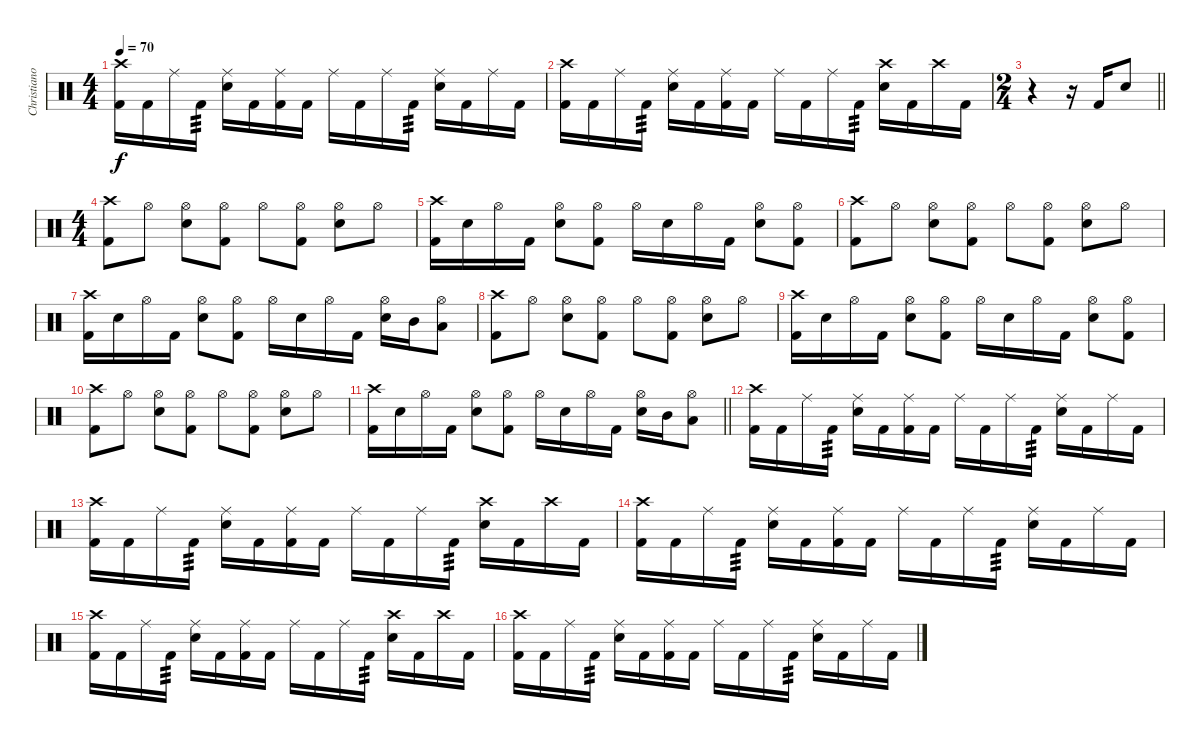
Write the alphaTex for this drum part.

\track ("Christiano Mozzati" "Christiano") {instrument percussion}
\staff {score}
\articulation defaults
\ts (4 4)
\tempo 70
\clef neutral
\ks c
("Crash high (hit)" "Kick (hit) 2").16{dy f} "Kick (hit) 2".16 "Ride (middle)".16 "Kick (hit) 2".16{tp 3} ("Ride (middle)" "Snare (hit) 2").16 "Kick (hit) 2".16 ("Ride (middle)" "Kick (hit) 2").16 "Kick (hit) 2".16 "Ride (middle)".16 "Kick (hit) 2".16 "Ride (middle)".16 "Kick (hit) 2".16{tp 3} ("Ride (middle)" "Snare (hit) 2").16 "Kick (hit) 2".16 "Ride (middle)".16 "Kick (hit) 2".16 |
("Crash high (hit)" "Kick (hit) 2").16 "Kick (hit) 2".16 "Ride (middle)".16 "Kick (hit) 2".16{tp 3} ("Ride (middle)" "Snare (hit) 2").16 "Kick (hit) 2".16 ("Ride (middle)" "Kick (hit) 2").16 "Kick (hit) 2".16 "Ride (middle)".16 "Kick (hit) 2".16 "Ride (middle)".16 "Kick (hit) 2".16{tp 3} ("Crash high (hit)" "Snare (hit) 2").16 "Kick (hit) 2".16 "Crash high (hit)".16 "Kick (hit) 2".16 |
\ts (2 4)
\barLineRight lightlight
r.4 r.16 "Kick (hit) 2".16 "Snare (hit) 2".8 |
\ts (4 4)
("Crash high (hit)" "Kick (hit) 2").8 "Hi-Hat (open)".8 ("Hi-Hat (open)" "Snare (hit) 2").8 ("Hi-Hat (open)" "Kick (hit) 2").8 "Hi-Hat (open)".8 ("Hi-Hat (open)" "Kick (hit) 2").8 ("Hi-Hat (open)" "Snare (hit) 2").8 "Hi-Hat (open)".8 |
("Crash high (hit)" "Kick (hit) 2").16 "Snare (hit) 2".16 "Hi-Hat (open)".16 "Kick (hit) 2".16 ("Hi-Hat (open)" "Snare (hit) 2").8 ("Hi-Hat (open)" "Kick (hit) 2").8 "Hi-Hat (open)".16 "Snare (hit) 2".16 "Hi-Hat (open)".16 "Kick (hit) 2".16 ("Hi-Hat (open)" "Snare (hit) 2").8 ("Hi-Hat (open)" "Kick (hit) 2").8 |
("Crash high (hit)" "Kick (hit) 2").8 "Hi-Hat (open)".8 ("Hi-Hat (open)" "Snare (hit) 2").8 ("Hi-Hat (open)" "Kick (hit) 2").8 "Hi-Hat (open)".8 ("Hi-Hat (open)" "Kick (hit) 2").8 ("Hi-Hat (open)" "Snare (hit) 2").8 "Hi-Hat (open)".8 |
("Crash high (hit)" "Kick (hit) 2").16 "Snare (hit) 2".16 "Hi-Hat (open)".16 "Kick (hit) 2".16 ("Hi-Hat (open)" "Snare (hit) 2").8 ("Hi-Hat (open)" "Kick (hit) 2").8 "Hi-Hat (open)".16 "Snare (hit) 2".16 "Hi-Hat (open)".16 "Kick (hit) 2".16 ("Hi-Hat (open)" "Snare (hit) 2").16 "Mid Tom (hit)".16 ("Hi-Hat (open)" "Low Tom (hit)").8 |
("Crash high (hit)" "Kick (hit) 2").8 "Hi-Hat (open)".8 ("Hi-Hat (open)" "Snare (hit) 2").8 ("Hi-Hat (open)" "Kick (hit) 2").8 "Hi-Hat (open)".8 ("Hi-Hat (open)" "Kick (hit) 2").8 ("Hi-Hat (open)" "Snare (hit) 2").8 "Hi-Hat (open)".8 |
("Crash high (hit)" "Kick (hit) 2").16 "Snare (hit) 2".16 "Hi-Hat (open)".16 "Kick (hit) 2".16 ("Hi-Hat (open)" "Snare (hit) 2").8 ("Hi-Hat (open)" "Kick (hit) 2").8 "Hi-Hat (open)".16 "Snare (hit) 2".16 "Hi-Hat (open)".16 "Kick (hit) 2".16 ("Hi-Hat (open)" "Snare (hit) 2").8 ("Hi-Hat (open)" "Kick (hit) 2").8 |
("Crash high (hit)" "Kick (hit) 2").8 "Hi-Hat (open)".8 ("Hi-Hat (open)" "Snare (hit) 2").8 ("Hi-Hat (open)" "Kick (hit) 2").8 "Hi-Hat (open)".8 ("Hi-Hat (open)" "Kick (hit) 2").8 ("Hi-Hat (open)" "Snare (hit) 2").8 "Hi-Hat (open)".8 |
\barLineRight lightlight
("Crash high (hit)" "Kick (hit) 2").16 "Snare (hit) 2".16 "Hi-Hat (open)".16 "Kick (hit) 2".16 ("Hi-Hat (open)" "Snare (hit) 2").8 ("Hi-Hat (open)" "Kick (hit) 2").8 "Hi-Hat (open)".16 "Snare (hit) 2".16 "Hi-Hat (open)".16 "Kick (hit) 2".16 ("Hi-Hat (open)" "Snare (hit) 2").16 "Mid Tom (hit)".16 ("Hi-Hat (open)" "Low Tom (hit)").8 |
("Crash high (hit)" "Kick (hit) 2").16 "Kick (hit) 2".16 "Ride (middle)".16 "Kick (hit) 2".16{tp 3} ("Ride (middle)" "Snare (hit) 2").16 "Kick (hit) 2".16 ("Ride (middle)" "Kick (hit) 2").16 "Kick (hit) 2".16 "Ride (middle)".16 "Kick (hit) 2".16 "Ride (middle)".16 "Kick (hit) 2".16{tp 3} ("Ride (middle)" "Snare (hit) 2").16 "Kick (hit) 2".16 "Ride (middle)".16 "Kick (hit) 2".16 |
("Crash high (hit)" "Kick (hit) 2").16 "Kick (hit) 2".16 "Ride (middle)".16 "Kick (hit) 2".16{tp 3} ("Ride (middle)" "Snare (hit) 2").16 "Kick (hit) 2".16 ("Ride (middle)" "Kick (hit) 2").16 "Kick (hit) 2".16 "Ride (middle)".16 "Kick (hit) 2".16 "Ride (middle)".16 "Kick (hit) 2".16{tp 3} ("Crash high (hit)" "Snare (hit) 2").16 "Kick (hit) 2".16 "Crash high (hit)".16 "Kick (hit) 2".16 |
("Crash high (hit)" "Kick (hit) 2").16 "Kick (hit) 2".16 "Ride (middle)".16 "Kick (hit) 2".16{tp 3} ("Ride (middle)" "Snare (hit) 2").16 "Kick (hit) 2".16 ("Ride (middle)" "Kick (hit) 2").16 "Kick (hit) 2".16 "Ride (middle)".16 "Kick (hit) 2".16 "Ride (middle)".16 "Kick (hit) 2".16{tp 3} ("Ride (middle)" "Snare (hit) 2").16 "Kick (hit) 2".16 "Ride (middle)".16 "Kick (hit) 2".16 |
("Crash high (hit)" "Kick (hit) 2").16 "Kick (hit) 2".16 "Ride (middle)".16 "Kick (hit) 2".16{tp 3} ("Ride (middle)" "Snare (hit) 2").16 "Kick (hit) 2".16 ("Ride (middle)" "Kick (hit) 2").16 "Kick (hit) 2".16 "Ride (middle)".16 "Kick (hit) 2".16 "Ride (middle)".16 "Kick (hit) 2".16{tp 3} ("Crash high (hit)" "Snare (hit) 2").16 "Kick (hit) 2".16 "Crash high (hit)".16 "Kick (hit) 2".16 |
("Crash high (hit)" "Kick (hit) 2").16 "Kick (hit) 2".16 "Ride (middle)".16 "Kick (hit) 2".16{tp 3} ("Ride (middle)" "Snare (hit) 2").16 "Kick (hit) 2".16 ("Ride (middle)" "Kick (hit) 2").16 "Kick (hit) 2".16 "Ride (middle)".16 "Kick (hit) 2".16 "Ride (middle)".16 "Kick (hit) 2".16{tp 3} ("Ride (middle)" "Snare (hit) 2").16 "Kick (hit) 2".16 "Ride (middle)".16 "Kick (hit) 2".16
